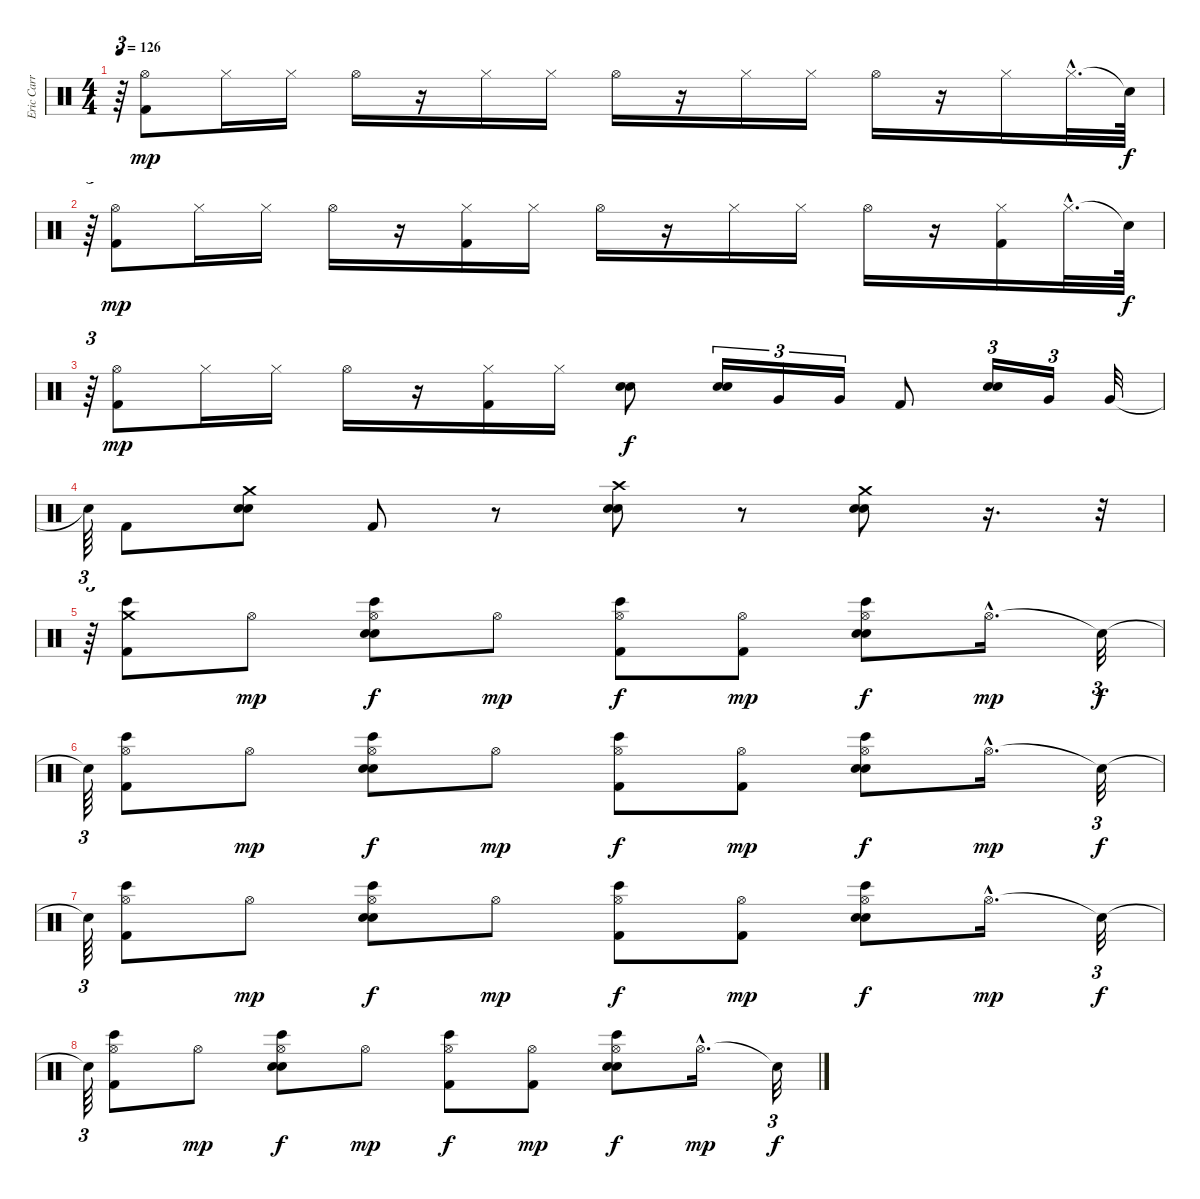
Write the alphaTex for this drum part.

\track ("Eric Carr" "Eric Carr") {instrument percussion}
\staff {score}
\articulation defaults
\ts (4 4)
\tempo 126
\clef neutral
\ks c
r.64{tu (3 2) dy f} ("Kick (hit) 2" "Hi-Hat (open)").8{dy mp} "Hi-Hat (closed)".16 "Hi-Hat (closed)".16 "Hi-Hat (open)".16 r.16 "Hi-Hat (closed)".16 "Hi-Hat (closed)".16 "Hi-Hat (open)".16 r.16 "Hi-Hat (closed)".16 "Hi-Hat (closed)".16 "Hi-Hat (open)".16 r.16 "Hi-Hat (closed)".16 "Hi-Hat (closed)"{hac}.32{d} "Snare (hit)"{t}.64{dy f} |
r.64{tu (3 2)} ("Kick (hit) 2" "Hi-Hat (open)").8{dy mp} "Hi-Hat (closed)".16 "Hi-Hat (closed)".16 "Hi-Hat (open)".16 r.16 ("Kick (hit) 2" "Hi-Hat (closed)").16 "Hi-Hat (closed)".16 "Hi-Hat (open)".16 r.16 "Hi-Hat (closed)".16 "Hi-Hat (closed)".16 "Hi-Hat (open)".16 r.16 ("Kick (hit) 2" "Hi-Hat (closed)").16 "Hi-Hat (closed)"{hac}.32{d} "Snare (hit)"{t}.64{dy f} |
r.64{tu (3 2)} ("Kick (hit) 2" "Hi-Hat (open)").8{dy mp} "Hi-Hat (closed)".16 "Hi-Hat (closed)".16 "Hi-Hat (open)".16 r.16 ("Kick (hit) 2" "Hi-Hat (closed)").16 "Hi-Hat (closed)".16 ("Snare (hit) 2" "Electric Snare (hit)").8{dy f} ("Snare (hit) 2" "Electric Snare (hit)").16{tu (3 2)} "Very Low Tom (hit)".16{tu (3 2)} "Very Low Tom (hit)".16{tu (3 2)} "Kick (hit) 2".8 ("Snare (hit) 2" "Electric Snare (hit)").16{tu (3 2)} "Very Low Tom (hit)".16{tu (3 2)} "Very Low Tom (hit)".32 |
"Snare (hit)"{t}.64{tu (3 2)} "Kick (hit) 2".8 ("Crash medium (hit)" "Snare (hit) 2" "Electric Snare (hit)").8 "Kick (hit) 2".8 r.8 ("Crash high (hit)" "Electric Snare (hit)" "Snare (hit) 2").8 r.8 ("Crash medium (hit)" "Snare (hit) 2" "Electric Snare (hit)").8 r.16{d} r.32{tu (3 2)} |
r.64{tu (3 2)} ("Bongo High (hit)" "Crash medium (hit)" "Kick (hit) 2").8 "Hi-Hat (open)".8{dy mp} ("Bongo High (hit)" "Hi-Hat (open)" "Snare (hit) 2" "Electric Snare (hit)").8{dy f} "Hi-Hat (open)".8{dy mp} ("Bongo High (hit)" "Kick (hit) 2" "Hi-Hat (open)").8{dy f} ("Kick (hit) 2" "Hi-Hat (open)").8{dy mp} ("Bongo High (hit)" "Electric Snare (hit)" "Snare (hit) 2" "Hi-Hat (open)").8{dy f} "Hi-Hat (open)"{hac}.16{d dy mp} "Snare (hit)"{t}.32{tu (3 2) dy f} |
"Snare (hit)"{t}.64{tu (3 2)} ("Bongo High (hit)" "Kick (hit) 2" "Hi-Hat (open)").8 "Hi-Hat (open)".8{dy mp} ("Bongo High (hit)" "Hi-Hat (open)" "Snare (hit) 2" "Electric Snare (hit)").8{dy f} "Hi-Hat (open)".8{dy mp} ("Bongo High (hit)" "Kick (hit) 2" "Hi-Hat (open)").8{dy f} ("Kick (hit) 2" "Hi-Hat (open)").8{dy mp} ("Bongo High (hit)" "Electric Snare (hit)" "Snare (hit) 2" "Hi-Hat (open)").8{dy f} "Hi-Hat (open)"{hac}.16{d dy mp} "Snare (hit)"{t}.32{tu (3 2) dy f} |
"Snare (hit)"{t}.64{tu (3 2)} ("Bongo High (hit)" "Hi-Hat (open)" "Kick (hit) 2").8 "Hi-Hat (open)".8{dy mp} ("Bongo High (hit)" "Hi-Hat (open)" "Snare (hit) 2" "Electric Snare (hit)").8{dy f} "Hi-Hat (open)".8{dy mp} ("Bongo High (hit)" "Kick (hit) 2" "Hi-Hat (open)").8{dy f} ("Kick (hit) 2" "Hi-Hat (open)").8{dy mp} ("Bongo High (hit)" "Electric Snare (hit)" "Snare (hit) 2" "Hi-Hat (open)").8{dy f} "Hi-Hat (open)"{hac}.16{d dy mp} "Snare (hit)"{t}.32{tu (3 2) dy f} |
"Snare (hit)"{t}.64{tu (3 2)} ("Bongo High (hit)" "Kick (hit) 2" "Hi-Hat (open)").8 "Hi-Hat (open)".8{dy mp} ("Bongo High (hit)" "Hi-Hat (open)" "Snare (hit) 2" "Electric Snare (hit)").8{dy f} "Hi-Hat (open)".8{dy mp} ("Bongo High (hit)" "Kick (hit) 2" "Hi-Hat (open)").8{dy f} ("Kick (hit) 2" "Hi-Hat (open)").8{dy mp} ("Bongo High (hit)" "Electric Snare (hit)" "Snare (hit) 2" "Hi-Hat (open)").8{dy f} "Hi-Hat (open)"{hac}.16{d dy mp} "Snare (hit)"{t}.32{tu (3 2) dy f}
